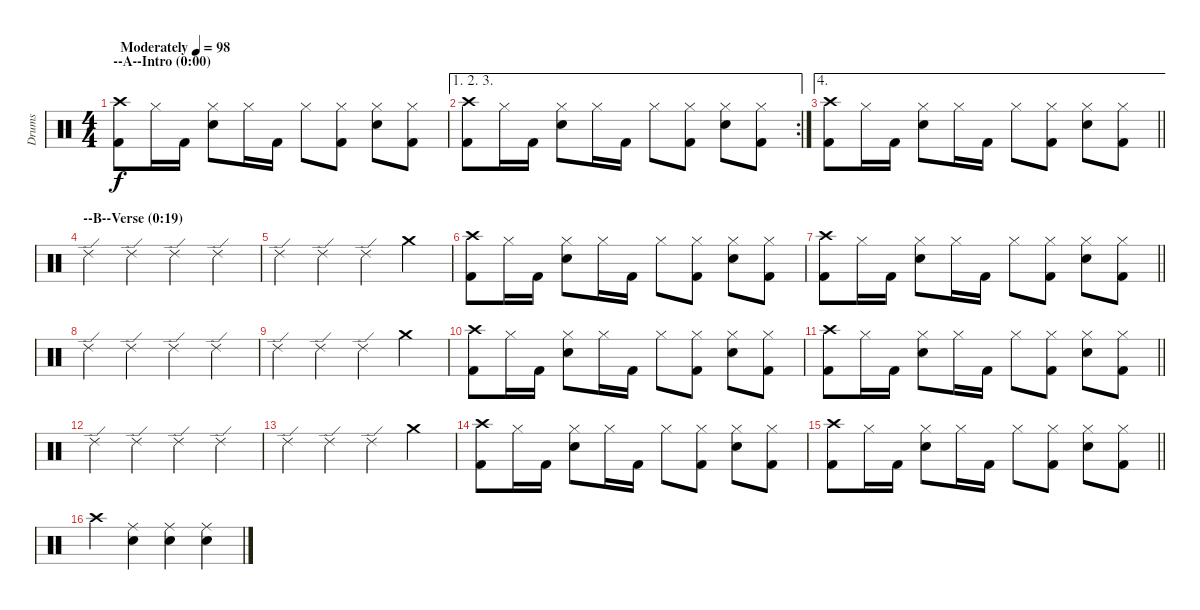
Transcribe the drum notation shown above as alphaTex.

\track ("Drums" "Drums") {instrument percussion}
\staff {score}
\articulation defaults
\ts (4 4)
\section ("" "--A--Intro (0:00)")
\tempo (98 "Moderately")
\clef neutral
\ks c
("Crash high (hit)" "Kick (hit) 2").8{dy f} "Hi-Hat (closed)".16 "Kick (hit) 2".16 ("Hi-Hat (closed)" "Electric Snare (hit)").8 "Hi-Hat (closed)".16 "Kick (hit) 2".16 "Hi-Hat (closed)".8 ("Hi-Hat (closed)" "Kick (hit) 2").8 ("Hi-Hat (closed)" "Electric Snare (hit)").8 ("Hi-Hat (closed)" "Kick (hit) 2").8 |
\ae (1 2 3)
\rc 2
("Crash high (hit)" "Kick (hit) 2").8 "Hi-Hat (closed)".16 "Kick (hit) 2".16 ("Hi-Hat (closed)" "Electric Snare (hit)").8 "Hi-Hat (closed)".16 "Kick (hit) 2".16 "Hi-Hat (closed)".8 ("Hi-Hat (closed)" "Kick (hit) 2").8 ("Hi-Hat (closed)" "Electric Snare (hit)").8 ("Hi-Hat (closed)" "Kick (hit) 2").8 |
\ae 4
\barLineRight lightlight
("Crash high (hit)" "Kick (hit) 2").8 "Hi-Hat (closed)".16 "Kick (hit) 2".16 ("Hi-Hat (closed)" "Electric Snare (hit)").8 "Hi-Hat (closed)".16 "Kick (hit) 2".16 "Hi-Hat (closed)".8 ("Hi-Hat (closed)" "Kick (hit) 2").8 ("Hi-Hat (closed)" "Electric Snare (hit)").8 ("Hi-Hat (closed)" "Kick (hit) 2").8 |
\section ("" "--B--Verse (0:19)")
"Ride (edge) 2".4 "Ride (edge) 2".4 "Ride (edge) 2".4 "Ride (edge) 2".4 |
"Ride (edge) 2".4 "Ride (edge) 2".4 "Ride (edge) 2".4 "Crash medium (hit)".4 |
("Crash high (hit)" "Kick (hit) 2").8 "Hi-Hat (closed)".16 "Kick (hit) 2".16 ("Hi-Hat (closed)" "Electric Snare (hit)").8 "Hi-Hat (closed)".16 "Kick (hit) 2".16 "Hi-Hat (closed)".8 ("Hi-Hat (closed)" "Kick (hit) 2").8 ("Hi-Hat (closed)" "Electric Snare (hit)").8 ("Hi-Hat (closed)" "Kick (hit) 2").8 |
\barLineRight lightlight
("Crash high (hit)" "Kick (hit) 2").8 "Hi-Hat (closed)".16 "Kick (hit) 2".16 ("Hi-Hat (closed)" "Electric Snare (hit)").8 "Hi-Hat (closed)".16 "Kick (hit) 2".16 "Hi-Hat (closed)".8 ("Hi-Hat (closed)" "Kick (hit) 2").8 ("Hi-Hat (closed)" "Electric Snare (hit)").8 ("Hi-Hat (closed)" "Kick (hit) 2").8 |
"Ride (edge) 2".4 "Ride (edge) 2".4 "Ride (edge) 2".4 "Ride (edge) 2".4 |
"Ride (edge) 2".4 "Ride (edge) 2".4 "Ride (edge) 2".4 "Crash medium (hit)".4 |
("Crash high (hit)" "Kick (hit) 2").8 "Hi-Hat (closed)".16 "Kick (hit) 2".16 ("Hi-Hat (closed)" "Electric Snare (hit)").8 "Hi-Hat (closed)".16 "Kick (hit) 2".16 "Hi-Hat (closed)".8 ("Hi-Hat (closed)" "Kick (hit) 2").8 ("Hi-Hat (closed)" "Electric Snare (hit)").8 ("Hi-Hat (closed)" "Kick (hit) 2").8 |
\barLineRight lightlight
("Crash high (hit)" "Kick (hit) 2").8 "Hi-Hat (closed)".16 "Kick (hit) 2".16 ("Hi-Hat (closed)" "Electric Snare (hit)").8 "Hi-Hat (closed)".16 "Kick (hit) 2".16 "Hi-Hat (closed)".8 ("Hi-Hat (closed)" "Kick (hit) 2").8 ("Hi-Hat (closed)" "Electric Snare (hit)").8 ("Hi-Hat (closed)" "Kick (hit) 2").8 |
"Ride (edge) 2".4 "Ride (edge) 2".4 "Ride (edge) 2".4 "Ride (edge) 2".4 |
"Ride (edge) 2".4 "Ride (edge) 2".4 "Ride (edge) 2".4 "Crash medium (hit)".4 |
("Crash high (hit)" "Kick (hit) 2").8 "Hi-Hat (closed)".16 "Kick (hit) 2".16 ("Hi-Hat (closed)" "Electric Snare (hit)").8 "Hi-Hat (closed)".16 "Kick (hit) 2".16 "Hi-Hat (closed)".8 ("Hi-Hat (closed)" "Kick (hit) 2").8 ("Hi-Hat (closed)" "Electric Snare (hit)").8 ("Hi-Hat (closed)" "Kick (hit) 2").8 |
\barLineRight lightlight
("Crash high (hit)" "Kick (hit) 2").8 "Hi-Hat (closed)".16 "Kick (hit) 2".16 ("Hi-Hat (closed)" "Electric Snare (hit)").8 "Hi-Hat (closed)".16 "Kick (hit) 2".16 "Hi-Hat (closed)".8 ("Hi-Hat (closed)" "Kick (hit) 2").8 ("Hi-Hat (closed)" "Electric Snare (hit)").8 ("Hi-Hat (closed)" "Kick (hit) 2").8 |
"Crash high (hit)".4 ("Electric Snare (hit)" "Ride (middle)").4 ("Electric Snare (hit)" "Ride (middle)").4 ("Electric Snare (hit)" "Ride (middle)").4
